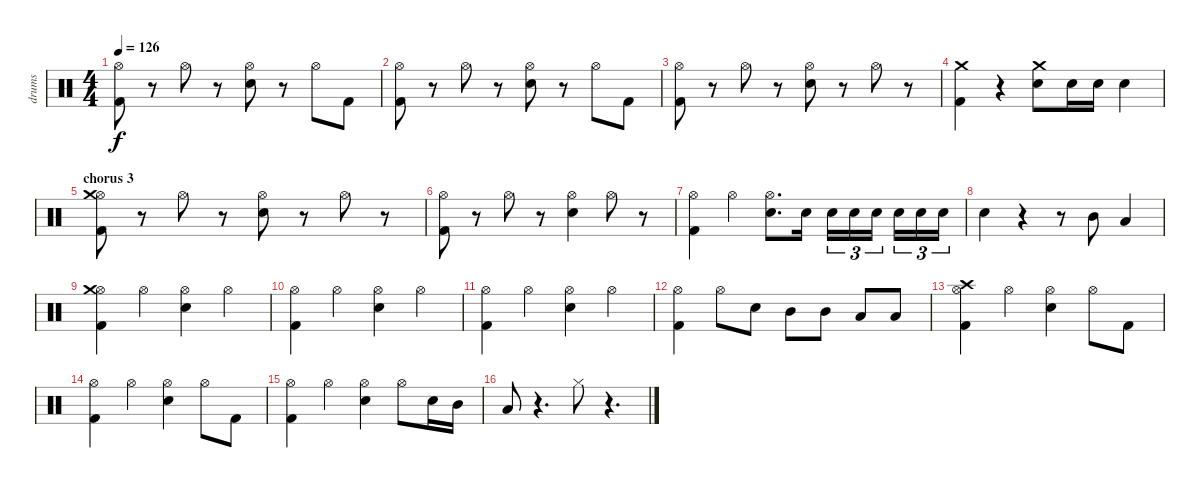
\track ("drums" "drums") {instrument percussion}
\staff {score}
\articulation defaults
\ts (4 4)
\tempo 126
\clef neutral
\ks c
("Kick (hit) 2" "Hi-Hat (open)").8{dy f} r.8 "Hi-Hat (open)".8 r.8 ("Electric Snare (hit)" "Hi-Hat (open)").8 r.8 "Hi-Hat (open)".8 "Kick (hit) 2".8 |
("Kick (hit) 2" "Hi-Hat (open)").8 r.8 "Hi-Hat (open)".8 r.8 ("Electric Snare (hit)" "Hi-Hat (open)").8 r.8 "Hi-Hat (open)".8 "Kick (hit) 2".8 |
("Kick (hit) 2" "Hi-Hat (open)").8 r.8 "Hi-Hat (open)".8 r.8 ("Electric Snare (hit)" "Hi-Hat (open)").8 r.8 "Hi-Hat (open)".8 r.8 |
("Kick (hit) 2" "Crash medium (hit)").4 r.4 ("Crash medium (hit)" "Electric Snare (hit)").8 "Electric Snare (hit)".16 "Electric Snare (hit)".16 "Electric Snare (hit)".4 |
\section ("" "chorus 3")
("Kick (hit) 2" "Hi-Hat (open)" "Crash medium (hit)").8 r.8 "Hi-Hat (open)".8 r.8 ("Electric Snare (hit)" "Hi-Hat (open)").8 r.8 "Hi-Hat (open)".8 r.8 |
("Kick (hit) 2" "Hi-Hat (open)").8 r.8 "Hi-Hat (open)".8 r.8 ("Electric Snare (hit)" "Hi-Hat (open)").4 "Hi-Hat (open)".8 r.8 |
("Kick (hit) 2" "Hi-Hat (open)").4 "Hi-Hat (open)".4 ("Electric Snare (hit)" "Hi-Hat (open)").8{d} "Electric Snare (hit)".16 "Electric Snare (hit)".16{tu (3 2)} "Electric Snare (hit)".16{tu (3 2)} "Electric Snare (hit)".16{tu (3 2)} "Electric Snare (hit)".16{tu (3 2)} "Electric Snare (hit)".16{tu (3 2)} "Electric Snare (hit)".16{tu (3 2)} |
"Electric Snare (hit)".4 r.4 r.8 "Mid Tom (hit)".8 "Low Tom (hit)".4 |
("Hi-Hat (open)" "Crash medium (hit)" "Kick (hit) 2").4 "Hi-Hat (open)".4 ("Electric Snare (hit)" "Hi-Hat (open)").4 "Hi-Hat (open)".4 |
("Kick (hit) 2" "Hi-Hat (open)").4 "Hi-Hat (open)".4 ("Electric Snare (hit)" "Hi-Hat (open)").4 "Hi-Hat (open)".4 |
("Kick (hit) 2" "Hi-Hat (open)").4 "Hi-Hat (open)".4 ("Electric Snare (hit)" "Hi-Hat (open)").4 "Hi-Hat (open)".4 |
("Kick (hit) 2" "Hi-Hat (open)").4 "Hi-Hat (open)".8 "Electric Snare (hit)".8 "Mid Tom (hit)".8 "Mid Tom (hit)".8 "Low Tom (hit)".8 "Low Tom (hit)".8 |
("Kick (hit) 2" "Hi-Hat (open)" "Crash high (hit)").4 "Hi-Hat (open)".4 ("Electric Snare (hit)" "Hi-Hat (open)").4 "Hi-Hat (open)".8 "Kick (hit) 2".8 |
("Kick (hit) 2" "Hi-Hat (open)").4 "Hi-Hat (open)".4 ("Electric Snare (hit)" "Hi-Hat (open)").4 "Hi-Hat (open)".8 "Kick (hit) 2".8 |
("Kick (hit) 2" "Hi-Hat (open)").4 "Hi-Hat (open)".4 ("Electric Snare (hit)" "Hi-Hat (open)").4 "Hi-Hat (open)".8 "Electric Snare (hit)".16 "Mid Tom (hit)".16 |
"Low Floor Tom (hit)".8 r.4{d} "Hi-Hat (closed)".8 r.4{d}
